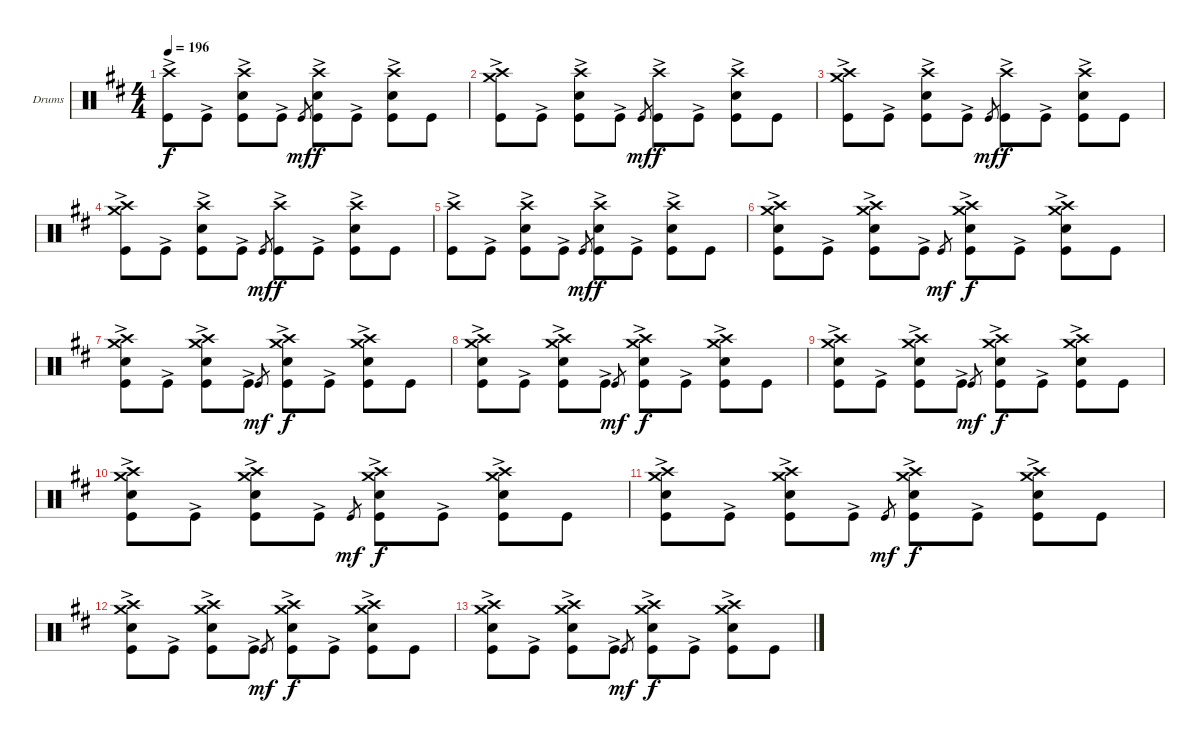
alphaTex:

\defaultSystemsLayout 4
\bracketExtendMode groupsimilarinstruments
\firstSystemTrackNameOrientation horizontal
\otherSystemsTrackNameOrientation horizontal
\track ("Drumkit" "Drums") {instrument percussion}
\staff {score}
\articulation defaults
\ts (4 4)
\tempo 196
\clef neutral
\ks d
("Crash high (hit)" "Kick (hit)"{ac}).8{dy f} "Kick (hit)"{ac}.8 ("Crash high (hit)" "Snare (hit) 2" "Kick (hit)"{ac}).8 "Kick (hit)"{ac}.8 "Kick (hit)".8{gr dy mf} ("Crash high (hit)" "Snare (hit) 2" "Kick (hit)"{ac}).8{dy f} "Kick (hit)"{ac}.8 ("Crash high (hit)" "Snare (hit) 2" "Kick (hit)"{ac}).8 "Kick (hit)".8 |
("Crash medium (hit)" "Crash high (hit)" "Kick (hit)"{ac}).8 "Kick (hit)"{ac}.8 ("Crash high (hit)" "Snare (hit) 2" "Kick (hit)"{ac}).8 "Kick (hit)"{ac}.8 "Kick (hit)".8{gr dy mf} ("Crash high (hit)" "Kick (hit)"{ac}).8{dy f} "Kick (hit)"{ac}.8 ("Crash high (hit)" "Snare (hit) 2" "Kick (hit)"{ac}).8 "Kick (hit)".8 |
("Crash medium (hit)" "Crash high (hit)" "Kick (hit)"{ac}).8 "Kick (hit)"{ac}.8 ("Crash high (hit)" "Snare (hit) 2" "Kick (hit)"{ac}).8 "Kick (hit)"{ac}.8 "Kick (hit)".8{gr dy mf} ("Crash high (hit)" "Kick (hit)"{ac}).8{dy f} "Kick (hit)"{ac}.8 ("Crash high (hit)" "Snare (hit) 2" "Kick (hit)"{ac}).8 "Kick (hit)".8 |
("Crash medium (hit)" "Crash high (hit)" "Kick (hit)"{ac}).8 "Kick (hit)"{ac}.8 ("Crash high (hit)" "Snare (hit) 2" "Kick (hit)"{ac}).8 "Kick (hit)"{ac}.8 "Kick (hit)".8{gr dy mf} ("Crash high (hit)" "Kick (hit)"{ac}).8{dy f} "Kick (hit)"{ac}.8 ("Crash high (hit)" "Snare (hit) 2" "Kick (hit)"{ac}).8 "Kick (hit)".8 |
("Crash high (hit)" "Kick (hit)"{ac}).8 "Kick (hit)"{ac}.8 ("Crash high (hit)" "Snare (hit) 2" "Kick (hit)"{ac}).8 "Kick (hit)"{ac}.8 "Kick (hit)".8{gr dy mf} ("Crash high (hit)" "Snare (hit) 2" "Kick (hit)"{ac}).8{dy f} "Kick (hit)"{ac}.8 ("Crash high (hit)" "Snare (hit) 2" "Kick (hit)"{ac}).8 "Kick (hit)".8 |
("Crash medium (hit)" "Crash high (hit)" "Snare (hit) 2" "Kick (hit)"{ac}).8 "Kick (hit)"{ac}.8 ("Crash medium (hit)" "Crash high (hit)" "Snare (hit) 2" "Kick (hit)"{ac}).8 "Kick (hit)"{ac}.8 "Kick (hit)".8{gr dy mf} ("Crash medium (hit)" "Crash high (hit)" "Snare (hit) 2" "Kick (hit)"{ac}).8{dy f} "Kick (hit)"{ac}.8 ("Crash medium (hit)" "Crash high (hit)" "Snare (hit) 2" "Kick (hit)"{ac}).8 "Kick (hit)".8 |
("Crash medium (hit)" "Crash high (hit)" "Snare (hit) 2" "Kick (hit)"{ac}).8 "Kick (hit)"{ac}.8 ("Crash medium (hit)" "Crash high (hit)" "Snare (hit) 2" "Kick (hit)"{ac}).8 "Kick (hit)"{ac}.8 "Kick (hit)".8{gr dy mf} ("Crash medium (hit)" "Crash high (hit)" "Snare (hit) 2" "Kick (hit)"{ac}).8{dy f} "Kick (hit)"{ac}.8 ("Crash medium (hit)" "Crash high (hit)" "Snare (hit) 2" "Kick (hit)"{ac}).8 "Kick (hit)".8 |
("Crash medium (hit)" "Crash high (hit)" "Snare (hit) 2" "Kick (hit)"{ac}).8 "Kick (hit)"{ac}.8 ("Crash medium (hit)" "Crash high (hit)" "Snare (hit) 2" "Kick (hit)"{ac}).8 "Kick (hit)"{ac}.8 "Kick (hit)".8{gr dy mf} ("Crash medium (hit)" "Crash high (hit)" "Snare (hit) 2" "Kick (hit)"{ac}).8{dy f} "Kick (hit)"{ac}.8 ("Crash medium (hit)" "Crash high (hit)" "Snare (hit) 2" "Kick (hit)"{ac}).8 "Kick (hit)".8 |
("Crash medium (hit)" "Crash high (hit)" "Snare (hit) 2" "Kick (hit)"{ac}).8 "Kick (hit)"{ac}.8 ("Crash medium (hit)" "Crash high (hit)" "Snare (hit) 2" "Kick (hit)"{ac}).8 "Kick (hit)"{ac}.8 "Kick (hit)".8{gr dy mf} ("Crash medium (hit)" "Crash high (hit)" "Snare (hit) 2" "Kick (hit)"{ac}).8{dy f} "Kick (hit)"{ac}.8 ("Crash medium (hit)" "Crash high (hit)" "Snare (hit) 2" "Kick (hit)"{ac}).8 "Kick (hit)".8 |
("Crash medium (hit)" "Crash high (hit)" "Snare (hit) 2" "Kick (hit)"{ac}).8 "Kick (hit)"{ac}.8 ("Crash medium (hit)" "Crash high (hit)" "Snare (hit) 2" "Kick (hit)"{ac}).8 "Kick (hit)"{ac}.8 "Kick (hit)".8{gr dy mf} ("Crash medium (hit)" "Crash high (hit)" "Snare (hit) 2" "Kick (hit)"{ac}).8{dy f} "Kick (hit)"{ac}.8 ("Crash medium (hit)" "Crash high (hit)" "Snare (hit) 2" "Kick (hit)"{ac}).8 "Kick (hit)".8 |
("Crash medium (hit)" "Crash high (hit)" "Snare (hit) 2" "Kick (hit)"{ac}).8 "Kick (hit)"{ac}.8 ("Crash medium (hit)" "Crash high (hit)" "Snare (hit) 2" "Kick (hit)"{ac}).8 "Kick (hit)"{ac}.8 "Kick (hit)".8{gr dy mf} ("Crash medium (hit)" "Crash high (hit)" "Snare (hit) 2" "Kick (hit)"{ac}).8{dy f} "Kick (hit)"{ac}.8 ("Crash medium (hit)" "Crash high (hit)" "Snare (hit) 2" "Kick (hit)"{ac}).8 "Kick (hit)".8 |
("Crash medium (hit)" "Crash high (hit)" "Snare (hit) 2" "Kick (hit)"{ac}).8 "Kick (hit)"{ac}.8 ("Crash medium (hit)" "Crash high (hit)" "Snare (hit) 2" "Kick (hit)"{ac}).8 "Kick (hit)"{ac}.8 "Kick (hit)".8{gr dy mf} ("Crash medium (hit)" "Crash high (hit)" "Snare (hit) 2" "Kick (hit)"{ac}).8{dy f} "Kick (hit)"{ac}.8 ("Crash medium (hit)" "Crash high (hit)" "Snare (hit) 2" "Kick (hit)"{ac}).8 "Kick (hit)".8 |
("Crash medium (hit)" "Crash high (hit)" "Snare (hit) 2" "Kick (hit)"{ac}).8 "Kick (hit)"{ac}.8 ("Crash medium (hit)" "Crash high (hit)" "Snare (hit) 2" "Kick (hit)"{ac}).8 "Kick (hit)"{ac}.8 "Kick (hit)".8{gr dy mf} ("Crash medium (hit)" "Crash high (hit)" "Snare (hit) 2" "Kick (hit)"{ac}).8{dy f} "Kick (hit)"{ac}.8 ("Crash medium (hit)" "Crash high (hit)" "Snare (hit) 2" "Kick (hit)"{ac}).8 "Kick (hit)".8
